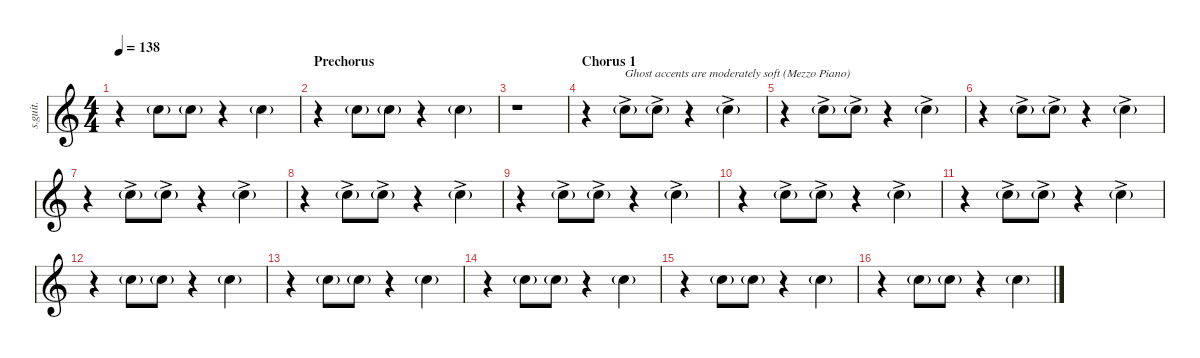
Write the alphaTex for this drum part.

\defaultSystemsLayout 4
\hideDynamics
\bracketExtendMode nobrackets
\track ("Hand Claps" "s.guit.") {instrument percussion}
\staff {score}
\articulation defaults
\ts (4 4)
\tempo 138
\clef g2
\ks c
r.4{dy fff} "Hand Clap (hit)"{g}.8 "Hand Clap (hit)"{g}.8 r.4 "Hand Clap (hit)"{g}.4 |
\section ("" "Prechorus")
r.4 "Hand Clap (hit)"{g}.8 "Hand Clap (hit)"{g}.8 r.4 "Hand Clap (hit)"{g}.4 |
r.1 |
\section ("" "Chorus 1")
r.4 "Hand Clap (hit)"{g ac}.8{txt "Ghost accents are moderately soft (Mezzo Piano)"} "Hand Clap (hit)"{g ac}.8 r.4 "Hand Clap (hit)"{g ac}.4 |
r.4 "Hand Clap (hit)"{g ac}.8 "Hand Clap (hit)"{g ac}.8 r.4 "Hand Clap (hit)"{g ac}.4 |
r.4 "Hand Clap (hit)"{g ac}.8 "Hand Clap (hit)"{g ac}.8 r.4 "Hand Clap (hit)"{g ac}.4 |
r.4 "Hand Clap (hit)"{g ac}.8 "Hand Clap (hit)"{g ac}.8 r.4 "Hand Clap (hit)"{g ac}.4 |
r.4 "Hand Clap (hit)"{g ac}.8 "Hand Clap (hit)"{g ac}.8 r.4 "Hand Clap (hit)"{g ac}.4 |
r.4 "Hand Clap (hit)"{g ac}.8 "Hand Clap (hit)"{g ac}.8 r.4 "Hand Clap (hit)"{g ac}.4 |
r.4 "Hand Clap (hit)"{g ac}.8 "Hand Clap (hit)"{g ac}.8 r.4 "Hand Clap (hit)"{g ac}.4 |
r.4 "Hand Clap (hit)"{g ac}.8 "Hand Clap (hit)"{g ac}.8 r.4 "Hand Clap (hit)"{g ac}.4 |
r.4 "Hand Clap (hit)"{g}.8 "Hand Clap (hit)"{g}.8 r.4 "Hand Clap (hit)"{g}.4 |
r.4 "Hand Clap (hit)"{g}.8 "Hand Clap (hit)"{g}.8 r.4 "Hand Clap (hit)"{g}.4 |
r.4 "Hand Clap (hit)"{g}.8 "Hand Clap (hit)"{g}.8 r.4 "Hand Clap (hit)"{g}.4 |
r.4 "Hand Clap (hit)"{g}.8 "Hand Clap (hit)"{g}.8 r.4 "Hand Clap (hit)"{g}.4 |
r.4 "Hand Clap (hit)"{g}.8 "Hand Clap (hit)"{g}.8 r.4 "Hand Clap (hit)"{g}.4
